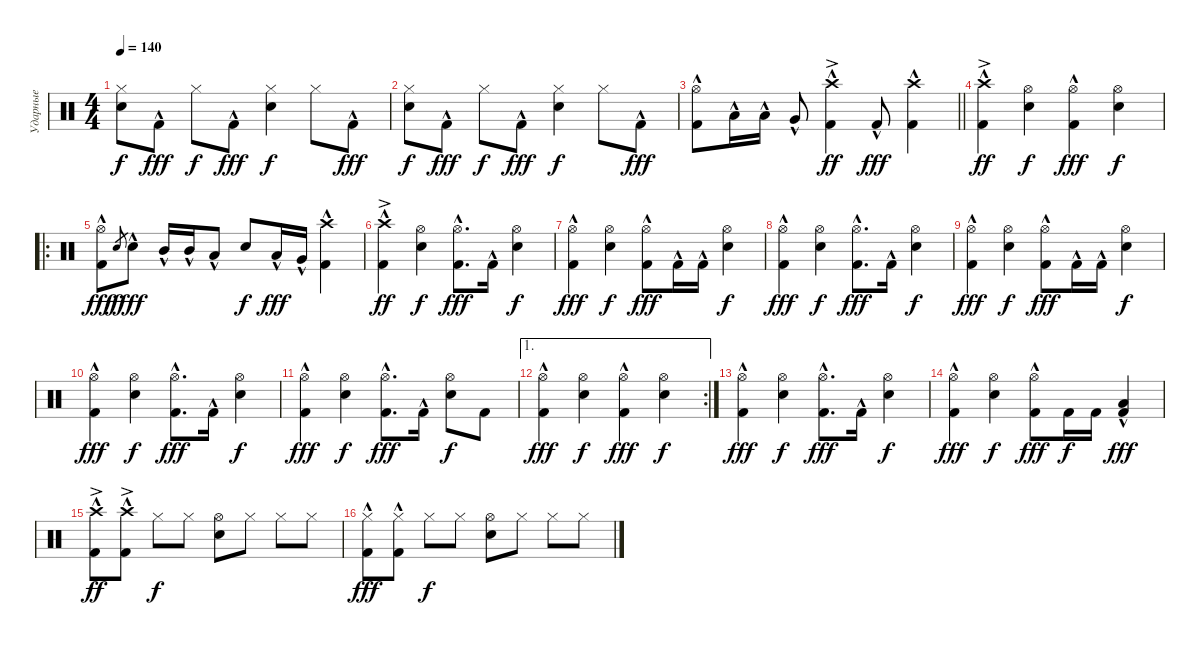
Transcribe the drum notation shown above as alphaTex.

\track ("Ударные" "Ударные") {instrument percussion}
\staff {score}
\articulation defaults
\ts (4 4)
\tempo 140
\clef neutral
\ks c
("Snare (hit) 2" "Hi-Hat (closed)").8{dy f} "Kick (hit) 2"{hac}.8{dy fff} "Hi-Hat (closed)".8{dy f} "Kick (hit) 2"{hac}.8{dy fff} ("Snare (hit) 2" "Hi-Hat (closed)").4{dy f} "Hi-Hat (closed)".8 "Kick (hit) 2"{hac}.8{dy fff} |
("Snare (hit) 2" "Hi-Hat (closed)").8{dy f} "Kick (hit) 2"{hac}.8{dy fff} "Hi-Hat (closed)".8{dy f} "Kick (hit) 2"{hac}.8{dy fff} ("Snare (hit) 2" "Hi-Hat (closed)").4{dy f} "Hi-Hat (closed)".8 "Kick (hit) 2"{hac}.8{dy fff} |
\barLineRight lightlight
("Kick (hit) 2"{hac} "Hi-Hat (open)").8 "Low Tom (hit)"{hac}.16 "Low Tom (hit)"{hac}.16 "Very Low Tom (hit)"{hac}.8 ("Kick (hit) 2"{hac} "Crash high (hit)"{ac}).4{dy ff} "Kick (hit) 2"{hac}.8{dy fff} ("Kick (hit) 2"{hac} "Crash high (hit)").4 |
("Kick (hit) 2"{hac} "Crash high (hit)"{ac}).4{dy ff} ("Snare (hit) 2" "Hi-Hat (open)").4{dy f} ("Kick (hit) 2"{hac} "Hi-Hat (open)").4{dy fff} ("Snare (hit) 2" "Hi-Hat (open)").4{dy f} |
\ro
("Kick (hit) 2"{hac} "Hi-Hat (open)").8{dy fff} "Electric Snare (hit)".8{gr dy f} "Electric Snare (hit)"{hac}.8{dy fff} "Mid Tom (hit)"{hac}.16 "Mid Tom (hit)"{hac}.16 "Low Tom (hit)"{hac}.8 "Snare (hit) 2".8{dy f} "Low Tom (hit)"{hac}.16{dy fff} "Very Low Tom (hit)"{hac}.16 ("Kick (hit) 2"{hac} "Crash high (hit)").4 |
("Kick (hit) 2"{hac} "Crash high (hit)"{ac}).4{dy ff} ("Snare (hit) 2" "Hi-Hat (open)").4{dy f} ("Kick (hit) 2"{hac} "Hi-Hat (open)").8{d dy fff} "Kick (hit) 2"{hac}.16 ("Snare (hit) 2" "Hi-Hat (open)").4{dy f} |
("Kick (hit) 2"{hac} "Hi-Hat (open)").4{dy fff} ("Snare (hit) 2" "Hi-Hat (open)").4{dy f} ("Kick (hit) 2"{hac} "Hi-Hat (open)").8{dy fff} "Kick (hit) 2"{hac}.16 "Kick (hit) 2"{hac}.16 ("Snare (hit) 2" "Hi-Hat (open)").4{dy f} |
("Kick (hit) 2"{hac} "Hi-Hat (open)").4{dy fff} ("Snare (hit) 2" "Hi-Hat (open)").4{dy f} ("Kick (hit) 2"{hac} "Hi-Hat (open)").8{d dy fff} "Kick (hit) 2"{hac}.16 ("Snare (hit) 2" "Hi-Hat (open)").4{dy f} |
("Kick (hit) 2"{hac} "Hi-Hat (open)").4{dy fff} ("Snare (hit) 2" "Hi-Hat (open)").4{dy f} ("Kick (hit) 2"{hac} "Hi-Hat (open)").8{dy fff} "Kick (hit) 2"{hac}.16 "Kick (hit) 2"{hac}.16 ("Snare (hit) 2" "Hi-Hat (open)").4{dy f} |
("Kick (hit) 2"{hac} "Hi-Hat (open)").4{dy fff} ("Snare (hit) 2" "Hi-Hat (open)").4{dy f} ("Kick (hit) 2"{hac} "Hi-Hat (open)").8{d dy fff} "Kick (hit) 2"{hac}.16 ("Snare (hit) 2" "Hi-Hat (open)").4{dy f} |
("Kick (hit) 2"{hac} "Hi-Hat (open)").4{dy fff} ("Snare (hit) 2" "Hi-Hat (open)").4{dy f} ("Kick (hit) 2"{hac} "Hi-Hat (open)").8{d dy fff} "Kick (hit) 2"{hac}.16 ("Snare (hit) 2" "Hi-Hat (open)").8{dy f} "Kick (hit) 2".8 |
\ae 1
\rc 2
("Kick (hit) 2"{hac} "Hi-Hat (open)").4{dy fff} ("Snare (hit) 2" "Hi-Hat (open)").4{dy f} ("Kick (hit) 2"{hac} "Hi-Hat (open)").4{dy fff} ("Snare (hit) 2" "Hi-Hat (open)").4{dy f} |
("Kick (hit) 2"{hac} "Hi-Hat (open)").4{dy fff} ("Snare (hit) 2" "Hi-Hat (open)").4{dy f} ("Kick (hit) 2"{hac} "Hi-Hat (open)").8{d dy fff} "Kick (hit) 2"{hac}.16 ("Snare (hit) 2" "Hi-Hat (open)").4{dy f} |
("Kick (hit) 2"{hac} "Hi-Hat (open)").4{dy fff} ("Snare (hit) 2" "Hi-Hat (open)").4{dy f} ("Kick (hit) 2"{hac} "Hi-Hat (open)").8{dy fff} "Kick (hit) 2".16{dy f} "Kick (hit) 2".16 ("Kick (hit) 2"{hac} "Low Floor Tom (hit)"{hac}).4{dy fff} |
("Kick (hit) 2"{hac} "Crash high (hit)"{ac}).8{dy ff} ("Kick (hit) 2"{hac} "Crash high (hit)"{ac}).8 "Hi-Hat (closed)".8{dy f} "Hi-Hat (closed)".8 ("Snare (hit) 2" "Hi-Hat (open)").8 "Hi-Hat (closed)".8 "Hi-Hat (closed)".8 "Hi-Hat (closed)".8 |
("Kick (hit) 2"{hac} "Hi-Hat (closed)").8{dy fff} ("Kick (hit) 2"{hac} "Hi-Hat (closed)").8 "Hi-Hat (closed)".8{dy f} "Hi-Hat (closed)".8 ("Snare (hit) 2" "Hi-Hat (open)").8 "Hi-Hat (closed)".8 "Hi-Hat (closed)".8 "Hi-Hat (closed)".8
